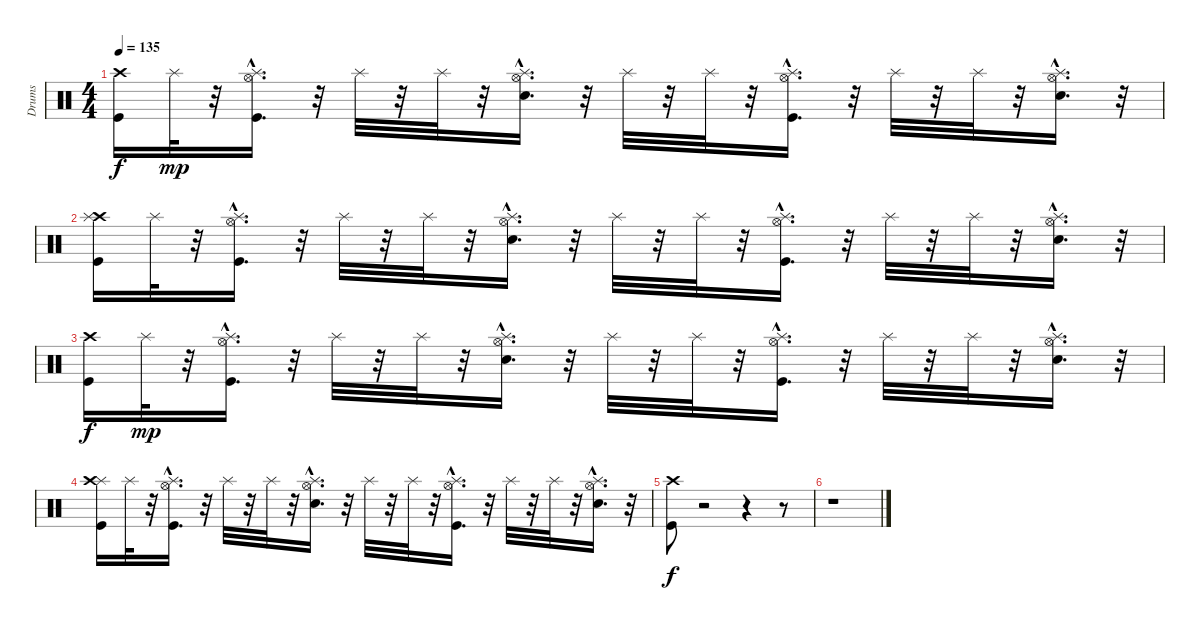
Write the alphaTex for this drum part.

\track ("Drums" "Drums") {instrument percussion}
\staff {score}
\articulation defaults
\ts (4 4)
\tempo 135
\clef neutral
\ks c
("Kick (hit)" "Crash high (hit)").16{dy f} "Splash (hit)".32{dy mp} r.32 ("Splash (hit)"{hac} "Hi-Hat (open)" "Kick (hit)").16{d} r.32 "Splash (hit)".32 r.32 "Splash (hit)".32 r.32 ("Snare (hit) 2" "Hi-Hat (open)" "Splash (hit)"{hac}).16{d} r.32 "Splash (hit)".32 r.32 "Splash (hit)".32 r.32 ("Hi-Hat (open)" "Kick (hit)" "Splash (hit)"{hac}).16{d} r.32 "Splash (hit)".32 r.32 "Splash (hit)".32 r.32 ("Hi-Hat (open)" "Snare (hit) 2" "Splash (hit)"{hac}).16{d} r.32 |
("Crash high (hit)" "Kick (hit)" "Splash (hit)").16 "Splash (hit)".32 r.32 ("Hi-Hat (open)" "Splash (hit)"{hac} "Kick (hit)").16{d} r.32 "Splash (hit)".32 r.32 "Splash (hit)".32 r.32 ("Hi-Hat (open)" "Snare (hit) 2" "Splash (hit)"{hac}).16{d} r.32 "Splash (hit)".32 r.32 "Splash (hit)".32 r.32 ("Hi-Hat (open)" "Kick (hit)" "Splash (hit)"{hac}).16{d} r.32 "Splash (hit)".32 r.32 "Splash (hit)".32 r.32 ("Hi-Hat (open)" "Snare (hit) 2" "Splash (hit)"{hac}).16{d} r.32 |
("Kick (hit)" "Crash high (hit)").16{dy f} "Splash (hit)".32{dy mp} r.32 ("Hi-Hat (open)" "Splash (hit)"{hac} "Kick (hit)").16{d} r.32 "Splash (hit)".32 r.32 "Splash (hit)".32 r.32 ("Hi-Hat (open)" "Snare (hit) 2" "Splash (hit)"{hac}).16{d} r.32 "Splash (hit)".32 r.32 "Splash (hit)".32 r.32 ("Hi-Hat (open)" "Kick (hit)" "Splash (hit)"{hac}).16{d} r.32 "Splash (hit)".32 r.32 "Splash (hit)".32 r.32 ("Hi-Hat (open)" "Snare (hit) 2" "Splash (hit)"{hac}).16{d} r.32 |
("Splash (hit)" "Kick (hit)" "Crash high (hit)").16 "Splash (hit)".32 r.32 ("Splash (hit)"{hac} "Kick (hit)" "Hi-Hat (open)").16{d} r.32 "Splash (hit)".32 r.32 "Splash (hit)".32 r.32 ("Hi-Hat (open)" "Snare (hit) 2" "Splash (hit)"{hac}).16{d} r.32 "Splash (hit)".32 r.32 "Splash (hit)".32 r.32 ("Hi-Hat (open)" "Kick (hit)" "Splash (hit)"{hac}).16{d} r.32 "Splash (hit)".32 r.32 "Splash (hit)".32 r.32 ("Hi-Hat (open)" "Snare (hit) 2" "Splash (hit)"{hac}).16{d} r.32 |
("Kick (hit)" "Crash high (hit)").8{dy f} r.2 r.4 r.8 |
r.1
